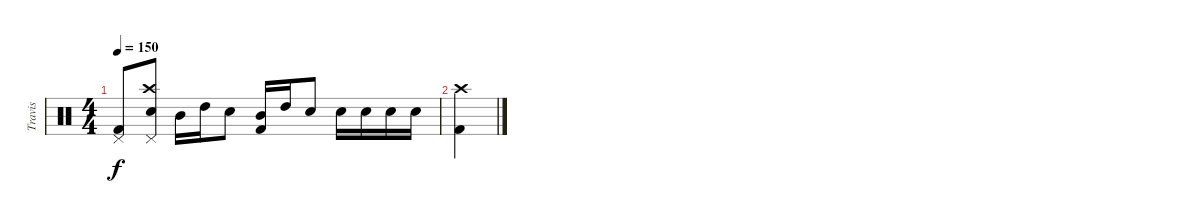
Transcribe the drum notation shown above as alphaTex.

\track ("Travis" "Travis") {instrument percussion}
\staff {score}
\articulation defaults
\ts (4 4)
\tempo 150
\clef neutral
\ks c
("Pedal Hi-Hat (hit)" "Kick (hit) 2").8{dy f} ("Pedal Hi-Hat (hit)" "Crash high (hit)" "Electric Snare (hit)").8 "Mid Tom (hit)".16 "High Tom (hit)".16 "Electric Snare (hit)".8 ("Mid Tom (hit)" "Kick (hit) 2").16 "High Tom (hit)".16 "Electric Snare (hit)".8 "Electric Snare (hit)".16 "Electric Snare (hit)".16 "Electric Snare (hit)".16 "Electric Snare (hit)".16 |
("Crash high (hit)" "Kick (hit) 2").4
